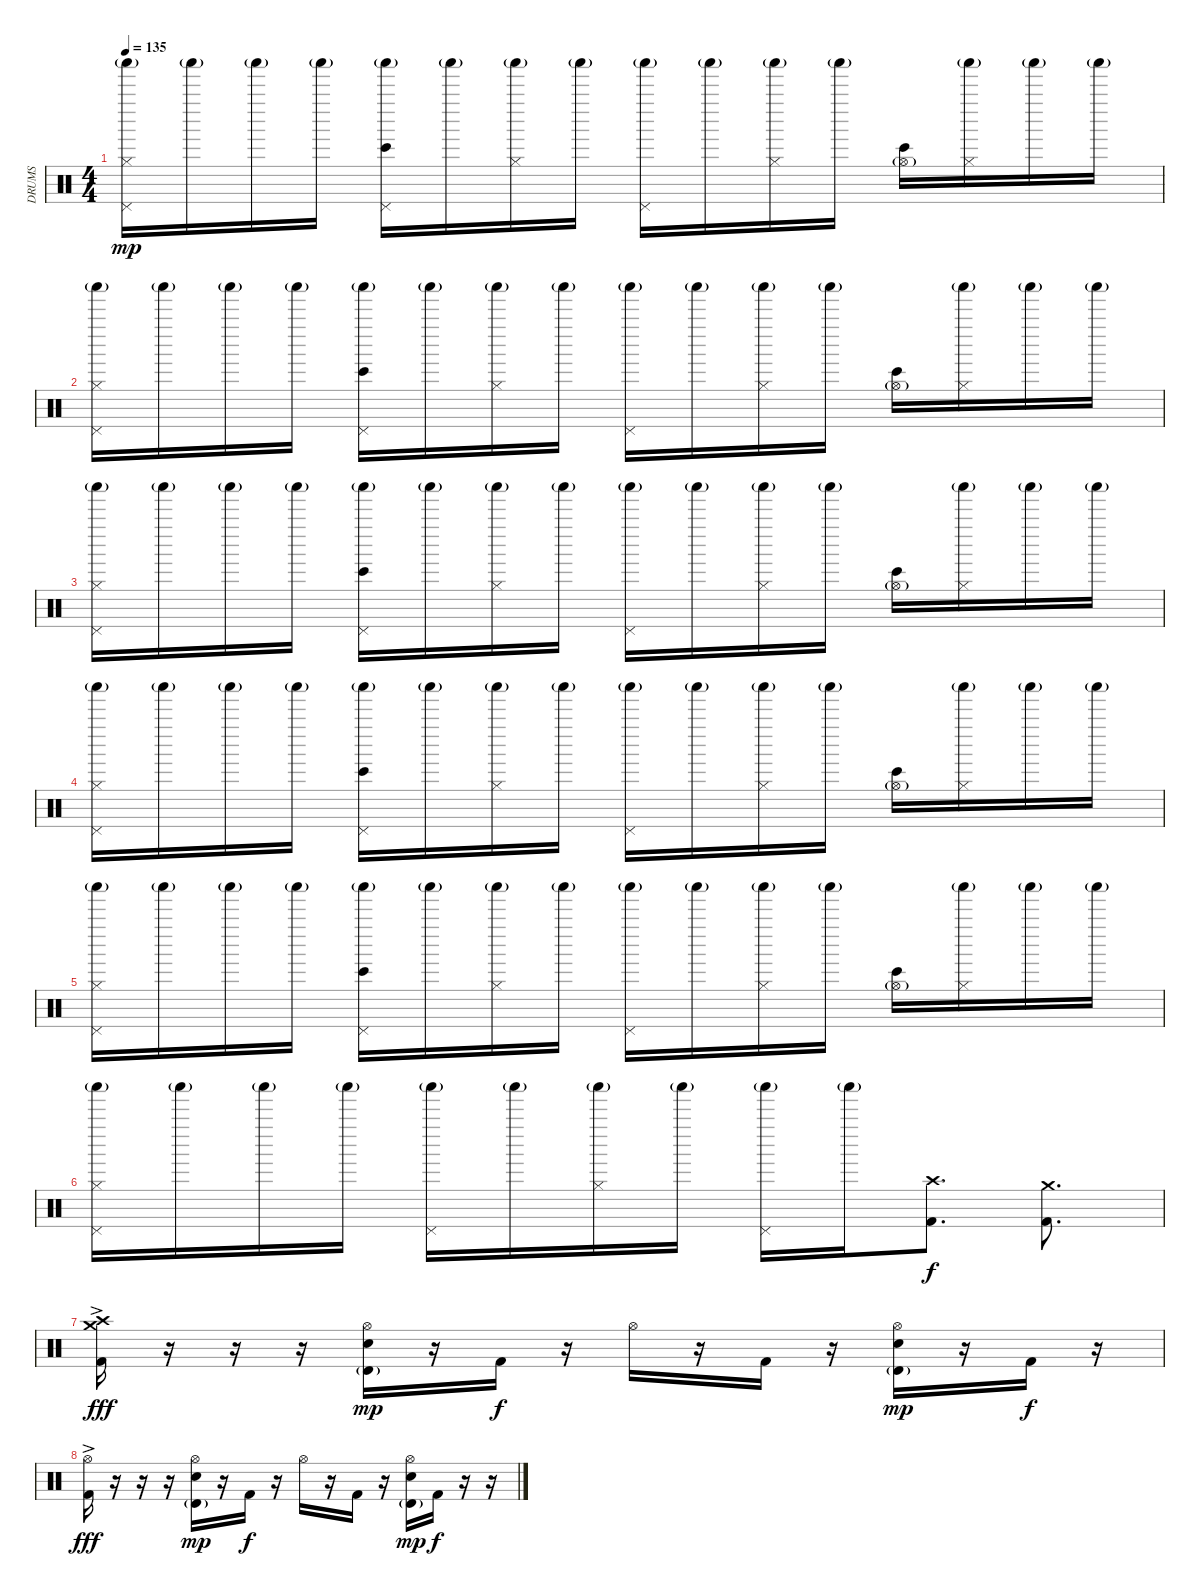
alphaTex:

\track ("DRUMS" "DRUMS") {instrument percussion}
\staff {score}
\articulation defaults
\ts (4 4)
\tempo 135
\clef neutral
\ks c
("Shaker (hit)"{g} "Hi-Hat (closed)" "Pedal Hi-Hat (hit)").16{dy mp} "Shaker (hit)"{g}.16 "Shaker (hit)"{g}.16 "Shaker (hit)"{g}.16 ("Shaker (hit)"{g} "Bongo High (hit)" "Pedal Hi-Hat (hit)").16 "Shaker (hit)"{g}.16 ("Shaker (hit)"{g} "Hi-Hat (closed)").16 "Shaker (hit)"{g}.16 ("Shaker (hit)"{g} "Pedal Hi-Hat (hit)").16 "Shaker (hit)"{g}.16 ("Shaker (hit)"{g} "Hi-Hat (closed)").16 "Shaker (hit)"{g}.16 ("Bongo High (hit)" "Hi-Hat (open)"{g}).16 ("Shaker (hit)"{g} "Hi-Hat (closed)").16 "Shaker (hit)"{g}.16 "Shaker (hit)"{g}.16 |
("Shaker (hit)"{g} "Hi-Hat (closed)" "Pedal Hi-Hat (hit)").16 "Shaker (hit)"{g}.16 "Shaker (hit)"{g}.16 "Shaker (hit)"{g}.16 ("Shaker (hit)"{g} "Bongo High (hit)" "Pedal Hi-Hat (hit)").16 "Shaker (hit)"{g}.16 ("Shaker (hit)"{g} "Hi-Hat (closed)").16 "Shaker (hit)"{g}.16 ("Shaker (hit)"{g} "Pedal Hi-Hat (hit)").16 "Shaker (hit)"{g}.16 ("Shaker (hit)"{g} "Hi-Hat (closed)").16 "Shaker (hit)"{g}.16 ("Bongo High (hit)" "Hi-Hat (open)"{g}).16 ("Shaker (hit)"{g} "Hi-Hat (closed)").16 "Shaker (hit)"{g}.16 "Shaker (hit)"{g}.16 |
("Shaker (hit)"{g} "Hi-Hat (closed)" "Pedal Hi-Hat (hit)").16 "Shaker (hit)"{g}.16 "Shaker (hit)"{g}.16 "Shaker (hit)"{g}.16 ("Shaker (hit)"{g} "Bongo High (hit)" "Pedal Hi-Hat (hit)").16 "Shaker (hit)"{g}.16 ("Shaker (hit)"{g} "Hi-Hat (closed)").16 "Shaker (hit)"{g}.16 ("Shaker (hit)"{g} "Pedal Hi-Hat (hit)").16 "Shaker (hit)"{g}.16 ("Shaker (hit)"{g} "Hi-Hat (closed)").16 "Shaker (hit)"{g}.16 ("Bongo High (hit)" "Hi-Hat (open)"{g}).16 ("Shaker (hit)"{g} "Hi-Hat (closed)").16 "Shaker (hit)"{g}.16 "Shaker (hit)"{g}.16 |
("Shaker (hit)"{g} "Hi-Hat (closed)" "Pedal Hi-Hat (hit)").16 "Shaker (hit)"{g}.16 "Shaker (hit)"{g}.16 "Shaker (hit)"{g}.16 ("Shaker (hit)"{g} "Bongo High (hit)" "Pedal Hi-Hat (hit)").16 "Shaker (hit)"{g}.16 ("Shaker (hit)"{g} "Hi-Hat (closed)").16 "Shaker (hit)"{g}.16 ("Shaker (hit)"{g} "Pedal Hi-Hat (hit)").16 "Shaker (hit)"{g}.16 ("Shaker (hit)"{g} "Hi-Hat (closed)").16 "Shaker (hit)"{g}.16 ("Bongo High (hit)" "Hi-Hat (open)"{g}).16 ("Shaker (hit)"{g} "Hi-Hat (closed)").16 "Shaker (hit)"{g}.16 "Shaker (hit)"{g}.16 |
("Shaker (hit)"{g} "Hi-Hat (closed)" "Pedal Hi-Hat (hit)").16 "Shaker (hit)"{g}.16 "Shaker (hit)"{g}.16 "Shaker (hit)"{g}.16 ("Shaker (hit)"{g} "Bongo High (hit)" "Pedal Hi-Hat (hit)").16 "Shaker (hit)"{g}.16 ("Shaker (hit)"{g} "Hi-Hat (closed)").16 "Shaker (hit)"{g}.16 ("Shaker (hit)"{g} "Pedal Hi-Hat (hit)").16 "Shaker (hit)"{g}.16 ("Shaker (hit)"{g} "Hi-Hat (closed)").16 "Shaker (hit)"{g}.16 ("Bongo High (hit)" "Hi-Hat (open)"{g}).16 ("Shaker (hit)"{g} "Hi-Hat (closed)").16 "Shaker (hit)"{g}.16 "Shaker (hit)"{g}.16 |
("Shaker (hit)"{g} "Hi-Hat (closed)" "Pedal Hi-Hat (hit)").16 "Shaker (hit)"{g}.16 "Shaker (hit)"{g}.16 "Shaker (hit)"{g}.16 ("Shaker (hit)"{g} "Pedal Hi-Hat (hit)").16 "Shaker (hit)"{g}.16 ("Shaker (hit)"{g} "Hi-Hat (closed)").16 "Shaker (hit)"{g}.16 ("Shaker (hit)"{g} "Pedal Hi-Hat (hit)").16 "Shaker (hit)"{g}.16 ("Kick (hit) 2" "Crash high (hit)").8{d dy f} ("Kick (hit) 2" "Crash medium (hit)").8{d} |
("Crash high (hit)" "Crash medium (hit)" "Kick (hit) 2"{ac}).16{dy fff} r.16 r.16 r.16 ("Hi-Hat (open)" "Electric Snare (hit)" "Timbale high (hit)"{g}).16{dy mp} r.16 "Kick (hit) 2".16{dy f} r.16 "Hi-Hat (open)".16 r.16 "Kick (hit) 2".16 r.16 ("Hi-Hat (open)" "Electric Snare (hit)" "Timbale high (hit)"{g}).16{dy mp} r.16 "Kick (hit) 2".16{dy f} r.16 |
("Hi-Hat (open)" "Kick (hit) 2"{ac}).16{dy fff} r.16 r.16 r.16 ("Hi-Hat (open)" "Electric Snare (hit)" "Timbale high (hit)"{g}).16{dy mp} r.16 "Kick (hit) 2".16{dy f} r.16 "Hi-Hat (open)".16 r.16 "Kick (hit) 2".16 r.16 ("Hi-Hat (open)" "Electric Snare (hit)" "Timbale high (hit)"{g}).16{dy mp} "Kick (hit) 2".16{dy f} r.16 r.16
